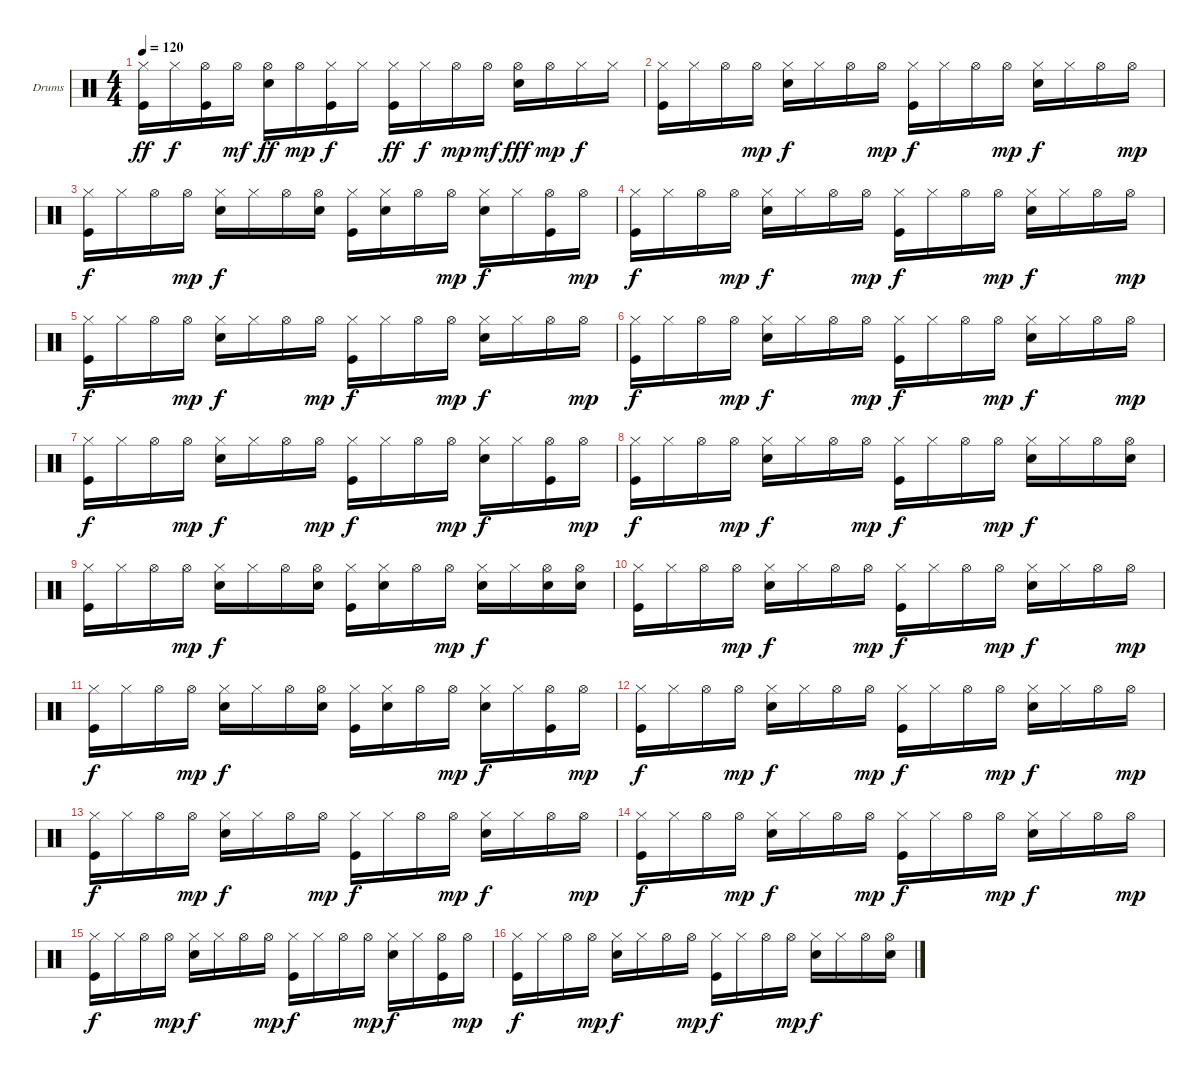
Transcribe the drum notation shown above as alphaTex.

\defaultSystemsLayout 4
\bracketExtendMode groupsimilarinstruments
\firstSystemTrackNameOrientation horizontal
\otherSystemsTrackNameOrientation horizontal
\track ("Г.Гурьянов-Ударные" "Drums") {instrument percussion}
\staff {score}
\articulation defaults
\ts (4 4)
\tempo 120
\clef neutral
\ks c
("Kick (hit)" "Hi-Hat (closed)").16{dy ff} "Hi-Hat (closed)".16{dy f} ("Kick (hit)" "Hi-Hat (open)").16 "Hi-Hat (open)".16{dy mf} ("Snare (hit) 2" "Hi-Hat (open)").16{dy ff} "Hi-Hat (open)".16{dy mp} ("Kick (hit)" "Hi-Hat (closed)").16{dy f} "Hi-Hat (closed)".16 ("Kick (hit)" "Hi-Hat (closed)").16{dy ff} "Hi-Hat (closed)".16{dy f} "Hi-Hat (open)".16{dy mp} "Hi-Hat (open)".16{dy mf} ("Snare (hit) 2" "Hi-Hat (open)").16{dy fff} "Hi-Hat (open)".16{dy mp} "Hi-Hat (closed)".16{dy f} "Hi-Hat (closed)".16 |
("Hi-Hat (closed)" "Kick (hit)").16 "Hi-Hat (closed)".16 "Hi-Hat (open)".16 "Hi-Hat (open)".16{dy mp} ("Hi-Hat (closed)" "Snare (hit) 2").16{dy f} "Hi-Hat (closed)".16 "Hi-Hat (open)".16 "Hi-Hat (open)".16{dy mp} ("Kick (hit)" "Hi-Hat (closed)").16{dy f} "Hi-Hat (closed)".16 "Hi-Hat (open)".16 "Hi-Hat (open)".16{dy mp} ("Hi-Hat (closed)" "Snare (hit) 2").16{dy f} "Hi-Hat (closed)".16 "Hi-Hat (open)".16 "Hi-Hat (open)".16{dy mp} |
("Hi-Hat (closed)" "Kick (hit)").16{dy f} "Hi-Hat (closed)".16 "Hi-Hat (open)".16 "Hi-Hat (open)".16{dy mp} ("Hi-Hat (closed)" "Snare (hit) 2").16{dy f} "Hi-Hat (closed)".16 "Hi-Hat (open)".16 ("Snare (hit) 2" "Hi-Hat (open)").16 ("Kick (hit)" "Hi-Hat (closed)").16 ("Snare (hit) 2" "Hi-Hat (closed)").16 "Hi-Hat (open)".16 "Hi-Hat (open)".16{dy mp} ("Hi-Hat (closed)" "Snare (hit) 2").16{dy f} "Hi-Hat (closed)".16 ("Kick (hit)" "Hi-Hat (open)").16 "Hi-Hat (open)".16{dy mp} |
("Hi-Hat (closed)" "Kick (hit)").16{dy f} "Hi-Hat (closed)".16 "Hi-Hat (open)".16 "Hi-Hat (open)".16{dy mp} ("Hi-Hat (closed)" "Snare (hit) 2").16{dy f} "Hi-Hat (closed)".16 "Hi-Hat (open)".16 "Hi-Hat (open)".16{dy mp} ("Kick (hit)" "Hi-Hat (closed)").16{dy f} "Hi-Hat (closed)".16 "Hi-Hat (open)".16 "Hi-Hat (open)".16{dy mp} ("Hi-Hat (closed)" "Snare (hit) 2").16{dy f} "Hi-Hat (closed)".16 "Hi-Hat (open)".16 "Hi-Hat (open)".16{dy mp} |
("Hi-Hat (closed)" "Kick (hit)").16{dy f} "Hi-Hat (closed)".16 "Hi-Hat (open)".16 "Hi-Hat (open)".16{dy mp} ("Hi-Hat (closed)" "Snare (hit) 2").16{dy f} "Hi-Hat (closed)".16 "Hi-Hat (open)".16 "Hi-Hat (open)".16{dy mp} ("Kick (hit)" "Hi-Hat (closed)").16{dy f} "Hi-Hat (closed)".16 "Hi-Hat (open)".16 "Hi-Hat (open)".16{dy mp} ("Hi-Hat (closed)" "Snare (hit) 2").16{dy f} "Hi-Hat (closed)".16 "Hi-Hat (open)".16 "Hi-Hat (open)".16{dy mp} |
("Hi-Hat (closed)" "Kick (hit)").16{dy f} "Hi-Hat (closed)".16 "Hi-Hat (open)".16 "Hi-Hat (open)".16{dy mp} ("Hi-Hat (closed)" "Snare (hit) 2").16{dy f} "Hi-Hat (closed)".16 "Hi-Hat (open)".16 "Hi-Hat (open)".16{dy mp} ("Kick (hit)" "Hi-Hat (closed)").16{dy f} "Hi-Hat (closed)".16 "Hi-Hat (open)".16 "Hi-Hat (open)".16{dy mp} ("Hi-Hat (closed)" "Snare (hit) 2").16{dy f} "Hi-Hat (closed)".16 "Hi-Hat (open)".16 "Hi-Hat (open)".16{dy mp} |
("Hi-Hat (closed)" "Kick (hit)").16{dy f} "Hi-Hat (closed)".16 "Hi-Hat (open)".16 "Hi-Hat (open)".16{dy mp} ("Snare (hit) 2" "Hi-Hat (closed)").16{dy f} "Hi-Hat (closed)".16 "Hi-Hat (open)".16 "Hi-Hat (open)".16{dy mp} ("Kick (hit)" "Hi-Hat (closed)").16{dy f} "Hi-Hat (closed)".16 "Hi-Hat (open)".16 "Hi-Hat (open)".16{dy mp} ("Hi-Hat (closed)" "Snare (hit) 2").16{dy f} "Hi-Hat (closed)".16 ("Kick (hit)" "Hi-Hat (open)").16 "Hi-Hat (open)".16{dy mp} |
("Hi-Hat (closed)" "Kick (hit)").16{dy f} "Hi-Hat (closed)".16 "Hi-Hat (open)".16 "Hi-Hat (open)".16{dy mp} ("Hi-Hat (closed)" "Snare (hit) 2").16{dy f} "Hi-Hat (closed)".16 "Hi-Hat (open)".16 "Hi-Hat (open)".16{dy mp} ("Kick (hit)" "Hi-Hat (closed)").16{dy f} "Hi-Hat (closed)".16 "Hi-Hat (open)".16 "Hi-Hat (open)".16{dy mp} ("Hi-Hat (closed)" "Snare (hit) 2").16{dy f} "Hi-Hat (closed)".16 "Hi-Hat (open)".16 ("Snare (hit) 2" "Hi-Hat (open)").16 |
("Hi-Hat (closed)" "Kick (hit)").16 "Hi-Hat (closed)".16 "Hi-Hat (open)".16 "Hi-Hat (open)".16{dy mp} ("Hi-Hat (closed)" "Snare (hit) 2").16{dy f} "Hi-Hat (closed)".16 "Hi-Hat (open)".16 ("Snare (hit) 2" "Hi-Hat (open)").16 ("Kick (hit)" "Hi-Hat (closed)").16 ("Snare (hit) 2" "Hi-Hat (closed)").16 "Hi-Hat (open)".16 "Hi-Hat (open)".16{dy mp} ("Hi-Hat (closed)" "Snare (hit) 2").16{dy f} "Hi-Hat (closed)".16 ("Snare (hit) 2" "Hi-Hat (open)").16 ("Snare (hit) 2" "Hi-Hat (open)").16 |
("Hi-Hat (closed)" "Kick (hit)").16 "Hi-Hat (closed)".16 "Hi-Hat (open)".16 "Hi-Hat (open)".16{dy mp} ("Hi-Hat (closed)" "Snare (hit) 2").16{dy f} "Hi-Hat (closed)".16 "Hi-Hat (open)".16 "Hi-Hat (open)".16{dy mp} ("Kick (hit)" "Hi-Hat (closed)").16{dy f} "Hi-Hat (closed)".16 "Hi-Hat (open)".16 "Hi-Hat (open)".16{dy mp} ("Hi-Hat (closed)" "Snare (hit) 2").16{dy f} "Hi-Hat (closed)".16 "Hi-Hat (open)".16 "Hi-Hat (open)".16{dy mp} |
("Hi-Hat (closed)" "Kick (hit)").16{dy f} "Hi-Hat (closed)".16 "Hi-Hat (open)".16 "Hi-Hat (open)".16{dy mp} ("Hi-Hat (closed)" "Snare (hit) 2").16{dy f} "Hi-Hat (closed)".16 "Hi-Hat (open)".16 ("Snare (hit) 2" "Hi-Hat (open)").16 ("Kick (hit)" "Hi-Hat (closed)").16 ("Snare (hit) 2" "Hi-Hat (closed)").16 "Hi-Hat (open)".16 "Hi-Hat (open)".16{dy mp} ("Hi-Hat (closed)" "Snare (hit) 2").16{dy f} "Hi-Hat (closed)".16 ("Kick (hit)" "Hi-Hat (open)").16 "Hi-Hat (open)".16{dy mp} |
("Hi-Hat (closed)" "Kick (hit)").16{dy f} "Hi-Hat (closed)".16 "Hi-Hat (open)".16 "Hi-Hat (open)".16{dy mp} ("Hi-Hat (closed)" "Snare (hit) 2").16{dy f} "Hi-Hat (closed)".16 "Hi-Hat (open)".16 "Hi-Hat (open)".16{dy mp} ("Kick (hit)" "Hi-Hat (closed)").16{dy f} "Hi-Hat (closed)".16 "Hi-Hat (open)".16 "Hi-Hat (open)".16{dy mp} ("Hi-Hat (closed)" "Snare (hit) 2").16{dy f} "Hi-Hat (closed)".16 "Hi-Hat (open)".16 "Hi-Hat (open)".16{dy mp} |
("Hi-Hat (closed)" "Kick (hit)").16{dy f} "Hi-Hat (closed)".16 "Hi-Hat (open)".16 "Hi-Hat (open)".16{dy mp} ("Hi-Hat (closed)" "Snare (hit) 2").16{dy f} "Hi-Hat (closed)".16 "Hi-Hat (open)".16 "Hi-Hat (open)".16{dy mp} ("Kick (hit)" "Hi-Hat (closed)").16{dy f} "Hi-Hat (closed)".16 "Hi-Hat (open)".16 "Hi-Hat (open)".16{dy mp} ("Hi-Hat (closed)" "Snare (hit) 2").16{dy f} "Hi-Hat (closed)".16 "Hi-Hat (open)".16 "Hi-Hat (open)".16{dy mp} |
("Hi-Hat (closed)" "Kick (hit)").16{dy f} "Hi-Hat (closed)".16 "Hi-Hat (open)".16 "Hi-Hat (open)".16{dy mp} ("Hi-Hat (closed)" "Snare (hit) 2").16{dy f} "Hi-Hat (closed)".16 "Hi-Hat (open)".16 "Hi-Hat (open)".16{dy mp} ("Kick (hit)" "Hi-Hat (closed)").16{dy f} "Hi-Hat (closed)".16 "Hi-Hat (open)".16 "Hi-Hat (open)".16{dy mp} ("Hi-Hat (closed)" "Snare (hit) 2").16{dy f} "Hi-Hat (closed)".16 "Hi-Hat (open)".16 "Hi-Hat (open)".16{dy mp} |
("Hi-Hat (closed)" "Kick (hit)").16{dy f} "Hi-Hat (closed)".16 "Hi-Hat (open)".16 "Hi-Hat (open)".16{dy mp} ("Snare (hit) 2" "Hi-Hat (closed)").16{dy f} "Hi-Hat (closed)".16 "Hi-Hat (open)".16 "Hi-Hat (open)".16{dy mp} ("Kick (hit)" "Hi-Hat (closed)").16{dy f} "Hi-Hat (closed)".16 "Hi-Hat (open)".16 "Hi-Hat (open)".16{dy mp} ("Hi-Hat (closed)" "Snare (hit) 2").16{dy f} "Hi-Hat (closed)".16 ("Kick (hit)" "Hi-Hat (open)").16 "Hi-Hat (open)".16{dy mp} |
("Hi-Hat (closed)" "Kick (hit)").16{dy f} "Hi-Hat (closed)".16 "Hi-Hat (open)".16 "Hi-Hat (open)".16{dy mp} ("Hi-Hat (closed)" "Snare (hit) 2").16{dy f} "Hi-Hat (closed)".16 "Hi-Hat (open)".16 "Hi-Hat (open)".16{dy mp} ("Kick (hit)" "Hi-Hat (closed)").16{dy f} "Hi-Hat (closed)".16 "Hi-Hat (open)".16 "Hi-Hat (open)".16{dy mp} ("Hi-Hat (closed)" "Snare (hit) 2").16{dy f} "Hi-Hat (closed)".16 "Hi-Hat (open)".16 ("Snare (hit) 2" "Hi-Hat (open)").16
